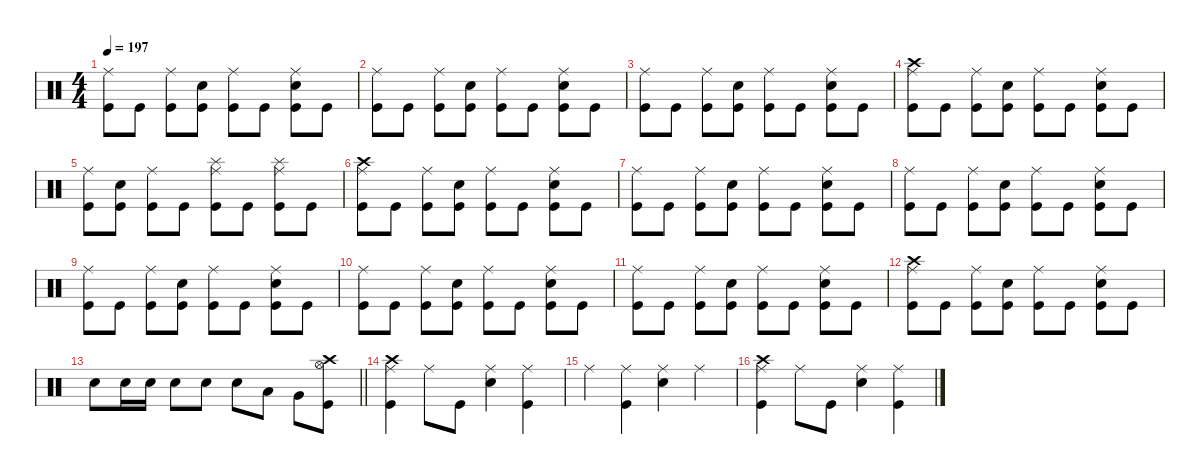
\defaultSystemsLayout 4
\hideDynamics
\bracketExtendMode nobrackets
\singleTrackTrackNamePolicy hidden
\multiTrackTrackNamePolicy hidden
\firstSystemTrackNameMode fullname
\firstSystemTrackNameOrientation horizontal
\otherSystemsTrackNameOrientation horizontal
\track ("Drums" "drm.") {defaultSystemsLayout 4 instrument percussion}
\staff {score}
\articulation defaults
\ts (4 4)
\tempo 197
\clef neutral
\ks c
("Ride (middle)" "Kick (hit)").8{dy f beam Down} "Kick (hit)".8{beam Down} ("Ride (middle)" "Kick (hit)").8{beam Down} ("Snare (hit) 2" "Kick (hit)").8{beam Down} ("Ride (middle)" "Kick (hit)").8{beam Down} "Kick (hit)".8{beam Down} ("Ride (middle)" "Snare (hit) 2" "Kick (hit)").8{beam Down} "Kick (hit)".8{beam Down} |
("Ride (middle)" "Kick (hit)").8{beam Down} "Kick (hit)".8{beam Down} ("Ride (middle)" "Kick (hit)").8{beam Down} ("Snare (hit) 2" "Kick (hit)").8{beam Down} ("Ride (middle)" "Kick (hit)").8{beam Down} "Kick (hit)".8{beam Down} ("Ride (middle)" "Snare (hit) 2" "Kick (hit)").8{beam Down} "Kick (hit)".8{beam Down} |
("Ride (middle)" "Kick (hit)").8{beam Down} "Kick (hit)".8{beam Down} ("Ride (middle)" "Kick (hit)").8{beam Down} ("Snare (hit) 2" "Kick (hit)").8{beam Down} ("Ride (middle)" "Kick (hit)").8{beam Down} "Kick (hit)".8{beam Down} ("Ride (middle)" "Snare (hit) 2" "Kick (hit)").8{beam Down} "Kick (hit)".8{beam Down} |
("Crash high (hit)" "Ride (middle)" "Kick (hit)").8{beam Down} "Kick (hit)".8{beam Down} ("Ride (middle)" "Kick (hit)").8{beam Down} ("Snare (hit) 2" "Kick (hit)").8{beam Down} ("Ride (middle)" "Kick (hit)").8{beam Down} "Kick (hit)".8{beam Down} ("Ride (middle)" "Snare (hit) 2" "Kick (hit)").8{beam Down} "Kick (hit)".8{beam Down} |
("Ride (middle)" "Kick (hit)").8{beam Down} ("Snare (hit) 2" "Kick (hit)").8{beam Down} ("Ride (middle)" "Kick (hit)").8{beam Down} "Kick (hit)".8{beam Down} ("Splash (hit)" "Ride (middle)" "Kick (hit)").8{beam Down} "Kick (hit)".8{beam Down} ("Splash (hit)" "Ride (middle)" "Kick (hit)").8{beam Down} "Kick (hit)".8{beam Down} |
("Crash high (hit)" "Ride (middle)" "Kick (hit)").8{beam Down} "Kick (hit)".8{beam Down} ("Ride (middle)" "Kick (hit)").8{beam Down} ("Snare (hit) 2" "Kick (hit)").8{beam Down} ("Ride (middle)" "Kick (hit)").8{beam Down} "Kick (hit)".8{beam Down} ("Ride (middle)" "Snare (hit) 2" "Kick (hit)").8{beam Down} "Kick (hit)".8{beam Down} |
("Ride (middle)" "Kick (hit)").8{beam Down} "Kick (hit)".8{beam Down} ("Ride (middle)" "Kick (hit)").8{beam Down} ("Snare (hit) 2" "Kick (hit)").8{beam Down} ("Ride (middle)" "Kick (hit)").8{beam Down} "Kick (hit)".8{beam Down} ("Ride (middle)" "Snare (hit) 2" "Kick (hit)").8{beam Down} "Kick (hit)".8{beam Down} |
("Ride (middle)" "Kick (hit)").8{beam Down} "Kick (hit)".8{beam Down} ("Ride (middle)" "Kick (hit)").8{beam Down} ("Snare (hit) 2" "Kick (hit)").8{beam Down} ("Ride (middle)" "Kick (hit)").8{beam Down} "Kick (hit)".8{beam Down} ("Ride (middle)" "Snare (hit) 2" "Kick (hit)").8{beam Down} "Kick (hit)".8{beam Down} |
("Ride (middle)" "Kick (hit)").8{beam Down} "Kick (hit)".8{beam Down} ("Ride (middle)" "Kick (hit)").8{beam Down} ("Snare (hit) 2" "Kick (hit)").8{beam Down} ("Ride (middle)" "Kick (hit)").8{beam Down} "Kick (hit)".8{beam Down} ("Ride (middle)" "Snare (hit) 2" "Kick (hit)").8{beam Down} "Kick (hit)".8{beam Down} |
("Ride (middle)" "Kick (hit)").8{beam Down} "Kick (hit)".8{beam Down} ("Ride (middle)" "Kick (hit)").8{beam Down} ("Snare (hit) 2" "Kick (hit)").8{beam Down} ("Ride (middle)" "Kick (hit)").8{beam Down} "Kick (hit)".8{beam Down} ("Ride (middle)" "Snare (hit) 2" "Kick (hit)").8{beam Down} "Kick (hit)".8{beam Down} |
("Ride (middle)" "Kick (hit)").8{beam Down} "Kick (hit)".8{beam Down} ("Ride (middle)" "Kick (hit)").8{beam Down} ("Snare (hit) 2" "Kick (hit)").8{beam Down} ("Ride (middle)" "Kick (hit)").8{beam Down} "Kick (hit)".8{beam Down} ("Ride (middle)" "Snare (hit) 2" "Kick (hit)").8{beam Down} "Kick (hit)".8{beam Down} |
("Crash high (hit)" "Ride (middle)" "Kick (hit)").8{beam Down} "Kick (hit)".8{beam Down} ("Ride (middle)" "Kick (hit)").8{beam Down} ("Snare (hit) 2" "Kick (hit)").8{beam Down} ("Ride (middle)" "Kick (hit)").8{beam Down} "Kick (hit)".8{beam Down} ("Ride (middle)" "Snare (hit) 2" "Kick (hit)").8{beam Down} "Kick (hit)".8{beam Down} |
\barLineRight lightlight "Snare (hit) 2".8{beam Down} "Snare (hit) 2".16{dy mp beam Down} "Snare (hit) 2".16{beam Down} "Snare (hit) 2".8{dy f beam Down} "Snare (hit) 2".8{beam Down} "Snare (hit) 2".8{beam Down} "Low Tom (hit)".8{beam Down} "Very Low Tom (hit)".8{beam Down}
("Hi-Hat (open)" "Crash high (hit)" "Kick (hit)").8{beam Down} |
("Crash high (hit)" "Ride (middle)" "Kick (hit)").4{beam Down} "Ride (middle)".8{beam Down} "Kick (hit)".8{beam Down} ("Ride (middle)" "Snare (hit) 2").4{beam Down} ("Ride (middle)" "Kick (hit)").4{beam Down} |
"Ride (middle)".4{beam Down} ("Ride (middle)" "Kick (hit)").4{beam Down} ("Ride (middle)" "Snare (hit) 2").4{beam Down} "Ride (middle)".4{beam Down} |
("Crash high (hit)" "Ride (middle)" "Kick (hit)").4{beam Down} "Ride (middle)".8{beam Down} "Kick (hit)".8{beam Down} ("Ride (middle)" "Snare (hit) 2").4{beam Down} ("Ride (middle)" "Kick (hit)").4{beam Down}
